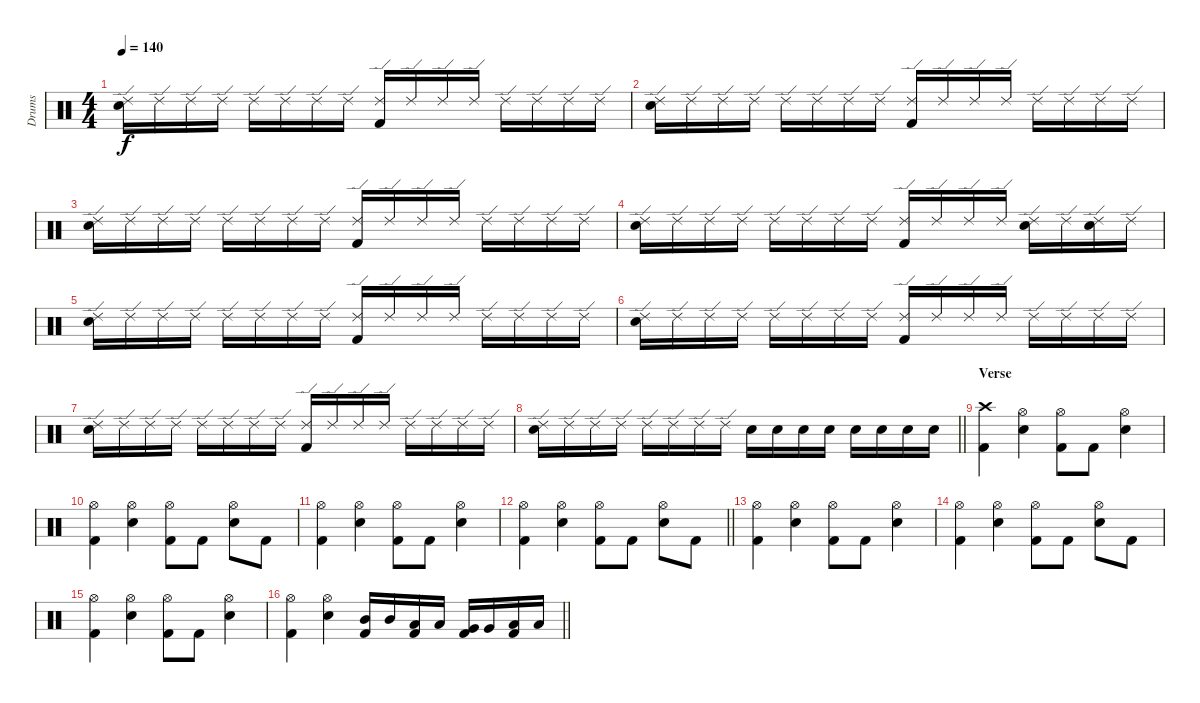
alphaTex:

\track ("Drums " "Drums ") {instrument percussion}
\staff {score}
\articulation defaults
\ts (4 4)
\tempo 140
\clef neutral
\ks c
("Ride (edge) 2" "Electric Snare (hit)").16{dy f} "Ride (edge) 2".16 "Ride (edge) 2".16 "Ride (edge) 2".16 "Ride (edge) 2".16 "Ride (edge) 2".16 "Ride (edge) 2".16 "Ride (edge) 2".16 ("Ride (edge) 2" "Kick (hit) 2").16 "Ride (edge) 2".16 "Ride (edge) 2".16 "Ride (edge) 2".16 "Ride (edge) 2".16 "Ride (edge) 2".16 "Ride (edge) 2".16 "Ride (edge) 2".16 |
("Ride (edge) 2" "Electric Snare (hit)").16 "Ride (edge) 2".16 "Ride (edge) 2".16 "Ride (edge) 2".16 "Ride (edge) 2".16 "Ride (edge) 2".16 "Ride (edge) 2".16 "Ride (edge) 2".16 ("Ride (edge) 2" "Kick (hit) 2").16 "Ride (edge) 2".16 "Ride (edge) 2".16 "Ride (edge) 2".16 "Ride (edge) 2".16 "Ride (edge) 2".16 "Ride (edge) 2".16 "Ride (edge) 2".16 |
("Ride (edge) 2" "Electric Snare (hit)").16 "Ride (edge) 2".16 "Ride (edge) 2".16 "Ride (edge) 2".16 "Ride (edge) 2".16 "Ride (edge) 2".16 "Ride (edge) 2".16 "Ride (edge) 2".16 ("Ride (edge) 2" "Kick (hit) 2").16 "Ride (edge) 2".16 "Ride (edge) 2".16 "Ride (edge) 2".16 "Ride (edge) 2".16 "Ride (edge) 2".16 "Ride (edge) 2".16 "Ride (edge) 2".16 |
("Ride (edge) 2" "Electric Snare (hit)").16 "Ride (edge) 2".16 "Ride (edge) 2".16 "Ride (edge) 2".16 "Ride (edge) 2".16 "Ride (edge) 2".16 "Ride (edge) 2".16 "Ride (edge) 2".16 ("Ride (edge) 2" "Kick (hit) 2").16 "Ride (edge) 2".16 "Ride (edge) 2".16 "Ride (edge) 2".16 ("Ride (edge) 2" "Electric Snare (hit)").16 "Ride (edge) 2".16 ("Ride (edge) 2" "Electric Snare (hit)").16 "Ride (edge) 2".16 |
("Ride (edge) 2" "Electric Snare (hit)").16 "Ride (edge) 2".16 "Ride (edge) 2".16 "Ride (edge) 2".16 "Ride (edge) 2".16 "Ride (edge) 2".16 "Ride (edge) 2".16 "Ride (edge) 2".16 ("Ride (edge) 2" "Kick (hit) 2").16 "Ride (edge) 2".16 "Ride (edge) 2".16 "Ride (edge) 2".16 "Ride (edge) 2".16 "Ride (edge) 2".16 "Ride (edge) 2".16 "Ride (edge) 2".16 |
("Ride (edge) 2" "Electric Snare (hit)").16 "Ride (edge) 2".16 "Ride (edge) 2".16 "Ride (edge) 2".16 "Ride (edge) 2".16 "Ride (edge) 2".16 "Ride (edge) 2".16 "Ride (edge) 2".16 ("Ride (edge) 2" "Kick (hit) 2").16 "Ride (edge) 2".16 "Ride (edge) 2".16 "Ride (edge) 2".16 "Ride (edge) 2".16 "Ride (edge) 2".16 "Ride (edge) 2".16 "Ride (edge) 2".16 |
("Ride (edge) 2" "Electric Snare (hit)").16 "Ride (edge) 2".16 "Ride (edge) 2".16 "Ride (edge) 2".16 "Ride (edge) 2".16 "Ride (edge) 2".16 "Ride (edge) 2".16 "Ride (edge) 2".16 ("Ride (edge) 2" "Kick (hit) 2").16 "Ride (edge) 2".16 "Ride (edge) 2".16 "Ride (edge) 2".16 "Ride (edge) 2".16 "Ride (edge) 2".16 "Ride (edge) 2".16 "Ride (edge) 2".16 |
\barLineRight lightlight
("Ride (edge) 2" "Electric Snare (hit)").16 "Ride (edge) 2".16 "Ride (edge) 2".16 "Ride (edge) 2".16 "Ride (edge) 2".16 "Ride (edge) 2".16 "Ride (edge) 2".16 "Ride (edge) 2".16 "Electric Snare (hit)".16 "Electric Snare (hit)".16 "Electric Snare (hit)".16 "Electric Snare (hit)".16 "Electric Snare (hit)".16 "Electric Snare (hit)".16 "Electric Snare (hit)".16 "Electric Snare (hit)".16 |
\section ("" "Verse ")
("Crash high (hit)" "Kick (hit) 2").4 ("Hi-Hat (open)" "Electric Snare (hit)").4 ("Hi-Hat (open)" "Kick (hit) 2").8 "Kick (hit) 2".8 ("Hi-Hat (open)" "Electric Snare (hit)").4 |
("Hi-Hat (open)" "Kick (hit) 2").4 ("Hi-Hat (open)" "Electric Snare (hit)").4 ("Hi-Hat (open)" "Kick (hit) 2").8 "Kick (hit) 2".8 ("Hi-Hat (open)" "Electric Snare (hit)").8 "Kick (hit) 2".8 |
("Hi-Hat (open)" "Kick (hit) 2").4 ("Hi-Hat (open)" "Electric Snare (hit)").4 ("Hi-Hat (open)" "Kick (hit) 2").8 "Kick (hit) 2".8 ("Hi-Hat (open)" "Electric Snare (hit)").4 |
\barLineRight lightlight
("Hi-Hat (open)" "Kick (hit) 2").4 ("Hi-Hat (open)" "Electric Snare (hit)").4 ("Hi-Hat (open)" "Kick (hit) 2").8 "Kick (hit) 2".8 ("Hi-Hat (open)" "Electric Snare (hit)").8 "Kick (hit) 2".8 |
("Hi-Hat (open)" "Kick (hit) 2").4 ("Hi-Hat (open)" "Electric Snare (hit)").4 ("Hi-Hat (open)" "Kick (hit) 2").8 "Kick (hit) 2".8 ("Hi-Hat (open)" "Electric Snare (hit)").4 |
("Hi-Hat (open)" "Kick (hit) 2").4 ("Hi-Hat (open)" "Electric Snare (hit)").4 ("Hi-Hat (open)" "Kick (hit) 2").8 "Kick (hit) 2".8 ("Hi-Hat (open)" "Electric Snare (hit)").8 "Kick (hit) 2".8 |
("Hi-Hat (open)" "Kick (hit) 2").4 ("Hi-Hat (open)" "Electric Snare (hit)").4 ("Hi-Hat (open)" "Kick (hit) 2").8 "Kick (hit) 2".8 ("Hi-Hat (open)" "Electric Snare (hit)").4 |
\barLineRight lightlight
("Hi-Hat (open)" "Kick (hit) 2").4 ("Hi-Hat (open)" "Electric Snare (hit)").4 ("Mid Tom (hit)" "Kick (hit) 2").16 "Mid Tom (hit)".16 ("Low Tom (hit)" "Kick (hit) 2").16 "Low Tom (hit)".16 ("Very Low Tom (hit)" "Kick (hit) 2").16 "Very Low Tom (hit)".16 ("Low Floor Tom (hit)" "Kick (hit) 2").16 "Low Floor Tom (hit)".16
